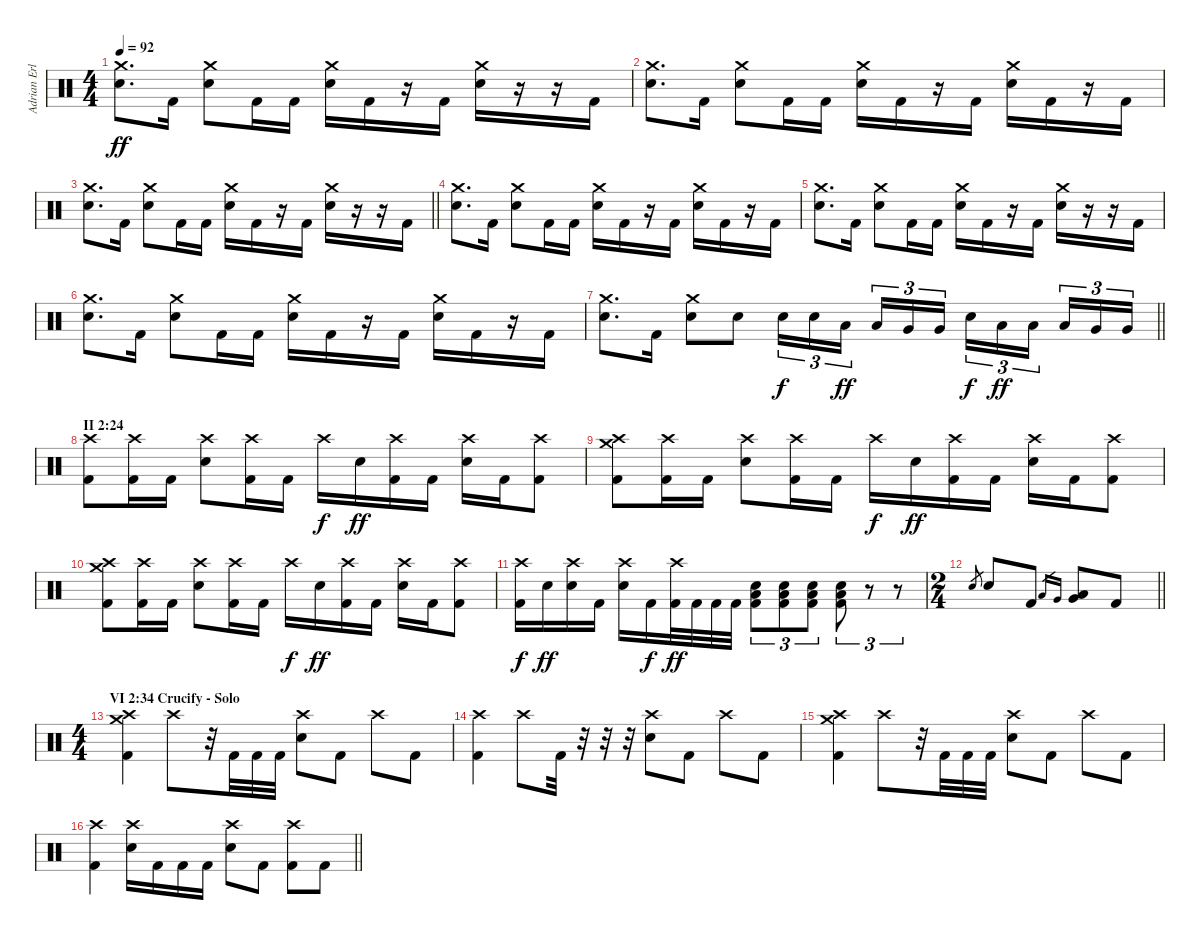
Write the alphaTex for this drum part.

\track ("Adrian Erlandsson (drums)" "Adrian Erl") {instrument percussion}
\staff {score}
\articulation defaults
\ts (4 4)
\tempo 92
\clef neutral
\ks c
("Crash medium (hit)" "Electric Snare (hit)").8{d dy ff} "Kick (hit) 2".16 ("Crash medium (hit)" "Electric Snare (hit)").8 "Kick (hit) 2".16 "Kick (hit) 2".16 ("Crash medium (hit)" "Electric Snare (hit)").16 "Kick (hit) 2".16 r.16 "Kick (hit) 2".16 ("Crash medium (hit)" "Electric Snare (hit)").16 r.16 r.16 "Kick (hit) 2".16 |
("Crash medium (hit)" "Electric Snare (hit)").8{d} "Kick (hit) 2".16 ("Crash medium (hit)" "Electric Snare (hit)").8 "Kick (hit) 2".16 "Kick (hit) 2".16 ("Crash medium (hit)" "Electric Snare (hit)").16 "Kick (hit) 2".16 r.16 "Kick (hit) 2".16 ("Crash medium (hit)" "Electric Snare (hit)").16 "Kick (hit) 2".16 r.16 "Kick (hit) 2".16 |
\barLineRight lightlight
("Crash medium (hit)" "Electric Snare (hit)").8{d} "Kick (hit) 2".16 ("Crash medium (hit)" "Electric Snare (hit)").8 "Kick (hit) 2".16 "Kick (hit) 2".16 ("Crash medium (hit)" "Electric Snare (hit)").16 "Kick (hit) 2".16 r.16 "Kick (hit) 2".16 ("Crash medium (hit)" "Electric Snare (hit)").16 r.16 r.16 "Kick (hit) 2".16 |
("Crash medium (hit)" "Electric Snare (hit)").8{d} "Kick (hit) 2".16 ("Crash medium (hit)" "Electric Snare (hit)").8 "Kick (hit) 2".16 "Kick (hit) 2".16 ("Crash medium (hit)" "Electric Snare (hit)").16 "Kick (hit) 2".16 r.16 "Kick (hit) 2".16 ("Crash medium (hit)" "Electric Snare (hit)").16 "Kick (hit) 2".16 r.16 "Kick (hit) 2".16 |
("Crash medium (hit)" "Electric Snare (hit)").8{d} "Kick (hit) 2".16 ("Crash medium (hit)" "Electric Snare (hit)").8 "Kick (hit) 2".16 "Kick (hit) 2".16 ("Crash medium (hit)" "Electric Snare (hit)").16 "Kick (hit) 2".16 r.16 "Kick (hit) 2".16 ("Crash medium (hit)" "Electric Snare (hit)").16 r.16 r.16 "Kick (hit) 2".16 |
("Crash medium (hit)" "Electric Snare (hit)").8{d} "Kick (hit) 2".16 ("Crash medium (hit)" "Electric Snare (hit)").8 "Kick (hit) 2".16 "Kick (hit) 2".16 ("Crash medium (hit)" "Electric Snare (hit)").16 "Kick (hit) 2".16 r.16 "Kick (hit) 2".16 ("Crash medium (hit)" "Electric Snare (hit)").16 "Kick (hit) 2".16 r.16 "Kick (hit) 2".16 |
\barLineRight lightlight
("Crash medium (hit)" "Electric Snare (hit)").8{d} "Kick (hit) 2".16 ("Crash medium (hit)" "Electric Snare (hit)").8 "Electric Snare (hit)".8 "Electric Snare (hit)".16{tu (3 2) dy f} "Electric Snare (hit)".16{tu (3 2)} "Low Tom (hit)".16{tu (3 2) dy ff beam splitsecondary} "Low Tom (hit)".16{tu (3 2)} "Very Low Tom (hit)".16{tu (3 2)} "Very Low Tom (hit)".16{tu (3 2)} "Electric Snare (hit)".16{tu (3 2) dy f} "Low Tom (hit)".16{tu (3 2) dy ff} "Low Tom (hit)".16{tu (3 2) beam splitsecondary} "Low Tom (hit)".16{tu (3 2)} "Very Low Tom (hit)".16{tu (3 2)} "Very Low Tom (hit)".16{tu (3 2)} |
\section ("" "II 2:24")
("Crash high (hit)" "Kick (hit) 2").8 ("Crash high (hit)" "Kick (hit) 2").16 "Kick (hit) 2".16 ("Crash high (hit)" "Electric Snare (hit)").8 ("Crash high (hit)" "Kick (hit) 2").16 "Kick (hit) 2".16 "Crash high (hit)".16{dy f} "Electric Snare (hit)".16{dy ff} ("Crash high (hit)" "Kick (hit) 2").16 "Kick (hit) 2".16 ("Crash high (hit)" "Electric Snare (hit)").16 "Kick (hit) 2".16 ("Crash high (hit)" "Kick (hit) 2").8 |
("Crash high (hit)" "Crash medium (hit)" "Kick (hit) 2").8 ("Crash high (hit)" "Kick (hit) 2").16 "Kick (hit) 2".16 ("Crash high (hit)" "Electric Snare (hit)").8 ("Crash high (hit)" "Kick (hit) 2").16 "Kick (hit) 2".16 "Crash high (hit)".16{dy f} "Electric Snare (hit)".16{dy ff} ("Crash high (hit)" "Kick (hit) 2").16 "Kick (hit) 2".16 ("Crash high (hit)" "Electric Snare (hit)").16 "Kick (hit) 2".16 ("Crash high (hit)" "Kick (hit) 2").8 |
("Crash high (hit)" "Crash medium (hit)" "Kick (hit) 2").8 ("Crash high (hit)" "Kick (hit) 2").16 "Kick (hit) 2".16 ("Crash high (hit)" "Electric Snare (hit)").8 ("Crash high (hit)" "Kick (hit) 2").16 "Kick (hit) 2".16 "Crash high (hit)".16{dy f} "Electric Snare (hit)".16{dy ff} ("Crash high (hit)" "Kick (hit) 2").16 "Kick (hit) 2".16 ("Crash high (hit)" "Electric Snare (hit)").16 "Kick (hit) 2".16 ("Crash high (hit)" "Kick (hit) 2").8 |
("Crash high (hit)" "Kick (hit) 2").16{dy f} "Electric Snare (hit)".16{dy ff} ("Crash high (hit)" "Electric Snare (hit)").16 "Kick (hit) 2".16 ("Crash high (hit)" "Electric Snare (hit)").16 "Kick (hit) 2".16{dy f} ("Crash high (hit)" "Kick (hit) 2").32{dy ff} "Kick (hit) 2".32 "Kick (hit) 2".32 "Kick (hit) 2".32 ("Electric Snare (hit)" "Low Floor Tom (hit)" "Kick (hit) 2").8{tu (3 2)} ("Electric Snare (hit)" "Low Floor Tom (hit)" "Kick (hit) 2").8{tu (3 2)} ("Electric Snare (hit)" "Low Floor Tom (hit)" "Kick (hit) 2").8{tu (3 2)} ("Electric Snare (hit)" "Low Floor Tom (hit)" "Kick (hit) 2").8{tu (3 2)} r.8{tu (3 2)} r.8{tu (3 2)} |
\ts (2 4)
\barLineRight lightlight "Electric Snare (hit)".8{gr} "Electric Snare (hit)".8 "Kick (hit) 2".8 "Low Floor Tom (hit)".16{gr} "Very Low Tom (hit)".16{gr}
("Low Floor Tom (hit)" "Very Low Tom (hit)").8 "Kick (hit) 2".8 |
\ts (4 4)
\section ("" "VI 2:34 Crucify - Solo")
("Crash high (hit)" "Crash medium (hit)" "Kick (hit) 2").4 "Crash high (hit)".8 r.32 "Kick (hit) 2".32 "Kick (hit) 2".32 "Kick (hit) 2".32 ("Crash high (hit)" "Electric Snare (hit)").8 "Kick (hit) 2".8 "Crash high (hit)".8 "Kick (hit) 2".8 |
("Crash high (hit)" "Kick (hit) 2").4 "Crash high (hit)".8 "Kick (hit) 2".32 r.32 r.32 r.32 ("Crash high (hit)" "Electric Snare (hit)").8 "Kick (hit) 2".8 "Crash high (hit)".8 "Kick (hit) 2".8 |
("Crash high (hit)" "Crash medium (hit)" "Kick (hit) 2").4 "Crash high (hit)".8 r.32 "Kick (hit) 2".32 "Kick (hit) 2".32 "Kick (hit) 2".32 ("Crash high (hit)" "Electric Snare (hit)").8 "Kick (hit) 2".8 "Crash high (hit)".8 "Kick (hit) 2".8 |
\barLineRight lightlight
("Crash high (hit)" "Kick (hit) 2").4 ("Crash high (hit)" "Electric Snare (hit)").16 "Kick (hit) 2".16 "Kick (hit) 2".16 "Kick (hit) 2".16 ("Crash high (hit)" "Electric Snare (hit)").8 "Kick (hit) 2".8 ("Crash high (hit)" "Kick (hit) 2").8 "Kick (hit) 2".8
